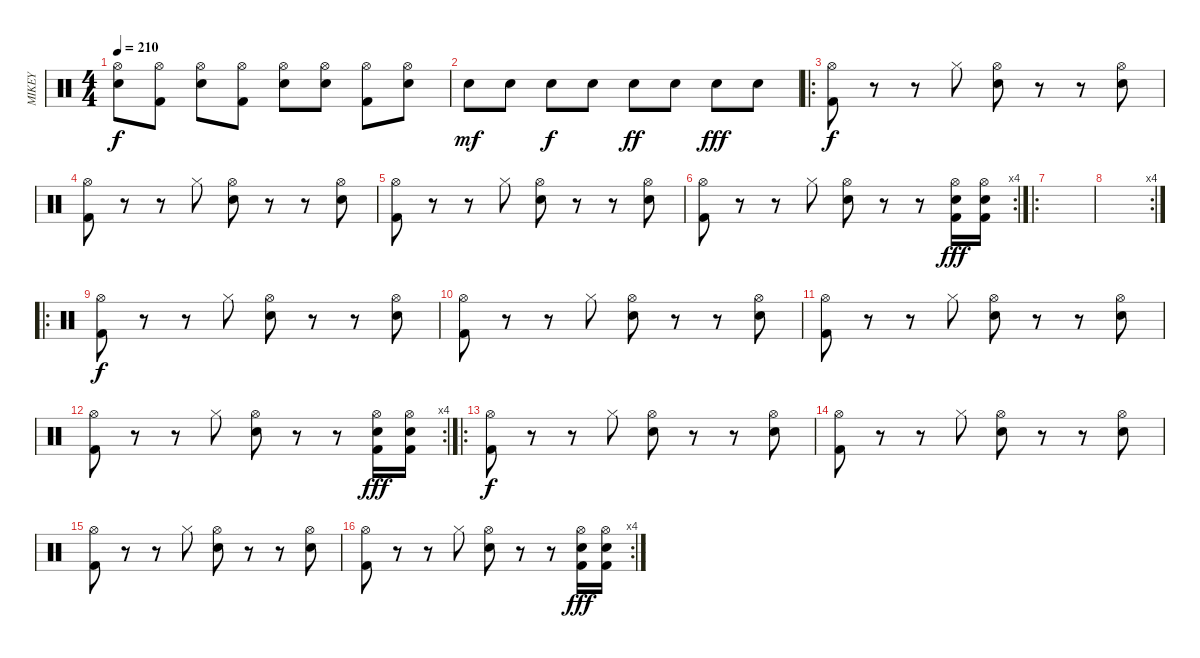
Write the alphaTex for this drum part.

\track ("MIKEY" "MIKEY") {instrument percussion}
\staff {score}
\articulation defaults
\ts (4 4)
\tempo 210
\clef neutral
\ks c
("Snare (hit) 2" "Hi-Hat (open)").8{dy f} ("Kick (hit) 2" "Hi-Hat (open)").8 ("Snare (hit) 2" "Hi-Hat (open)").8 ("Kick (hit) 2" "Hi-Hat (open)").8 ("Snare (hit) 2" "Hi-Hat (open)").8 ("Snare (hit) 2" "Hi-Hat (open)").8 ("Kick (hit) 2" "Hi-Hat (open)").8 ("Snare (hit) 2" "Hi-Hat (open)").8 |
"Electric Snare (hit)".8{dy mf} "Electric Snare (hit)".8 "Electric Snare (hit)".8{dy f} "Electric Snare (hit)".8 "Electric Snare (hit)".8{dy ff} "Electric Snare (hit)".8 "Electric Snare (hit)".8{dy fff} "Electric Snare (hit)".8 |
\ro
("Hi-Hat (open)" "Kick (hit) 2").8{dy f} r.8 r.8 "Hi-Hat (closed)".8 ("Hi-Hat (open)" "Snare (hit) 2").8 r.8 r.8 ("Hi-Hat (open)" "Snare (hit) 2").8 |
("Hi-Hat (open)" "Kick (hit) 2").8 r.8 r.8 "Hi-Hat (closed)".8 ("Hi-Hat (open)" "Snare (hit) 2").8 r.8 r.8 ("Hi-Hat (open)" "Snare (hit) 2").8 |
("Hi-Hat (open)" "Kick (hit) 2").8 r.8 r.8 "Hi-Hat (closed)".8 ("Hi-Hat (open)" "Snare (hit) 2").8 r.8 r.8 ("Hi-Hat (open)" "Snare (hit) 2").8 |
\rc 4
("Hi-Hat (open)" "Kick (hit) 2").8 r.8 r.8 "Hi-Hat (closed)".8 ("Hi-Hat (open)" "Snare (hit) 2").8 r.8 r.8 ("Kick (hit) 2" "Hi-Hat (open)" "Electric Snare (hit)").16{dy fff} ("Kick (hit) 2" "Hi-Hat (open)" "Electric Snare (hit)").16 |
\ro
|
\rc 4
|
\ro
("Hi-Hat (open)" "Kick (hit) 2").8{dy f} r.8 r.8 "Hi-Hat (closed)".8 ("Hi-Hat (open)" "Snare (hit) 2").8 r.8 r.8 ("Hi-Hat (open)" "Snare (hit) 2").8 |
("Hi-Hat (open)" "Kick (hit) 2").8 r.8 r.8 "Hi-Hat (closed)".8 ("Hi-Hat (open)" "Snare (hit) 2").8 r.8 r.8 ("Hi-Hat (open)" "Snare (hit) 2").8 |
("Hi-Hat (open)" "Kick (hit) 2").8 r.8 r.8 "Hi-Hat (closed)".8 ("Hi-Hat (open)" "Snare (hit) 2").8 r.8 r.8 ("Hi-Hat (open)" "Snare (hit) 2").8 |
\rc 4
("Hi-Hat (open)" "Kick (hit) 2").8 r.8 r.8 "Hi-Hat (closed)".8 ("Hi-Hat (open)" "Snare (hit) 2").8 r.8 r.8 ("Kick (hit) 2" "Hi-Hat (open)" "Electric Snare (hit)").16{dy fff} ("Kick (hit) 2" "Hi-Hat (open)" "Electric Snare (hit)").16 |
\ro
("Hi-Hat (open)" "Kick (hit) 2").8{dy f} r.8 r.8 "Hi-Hat (closed)".8 ("Hi-Hat (open)" "Snare (hit) 2").8 r.8 r.8 ("Hi-Hat (open)" "Snare (hit) 2").8 |
("Hi-Hat (open)" "Kick (hit) 2").8 r.8 r.8 "Hi-Hat (closed)".8 ("Hi-Hat (open)" "Snare (hit) 2").8 r.8 r.8 ("Hi-Hat (open)" "Snare (hit) 2").8 |
("Hi-Hat (open)" "Kick (hit) 2").8 r.8 r.8 "Hi-Hat (closed)".8 ("Hi-Hat (open)" "Snare (hit) 2").8 r.8 r.8 ("Hi-Hat (open)" "Snare (hit) 2").8 |
\rc 4
("Hi-Hat (open)" "Kick (hit) 2").8 r.8 r.8 "Hi-Hat (closed)".8 ("Hi-Hat (open)" "Snare (hit) 2").8 r.8 r.8 ("Kick (hit) 2" "Hi-Hat (open)" "Electric Snare (hit)").16{dy fff} ("Kick (hit) 2" "Hi-Hat (open)" "Electric Snare (hit)").16
